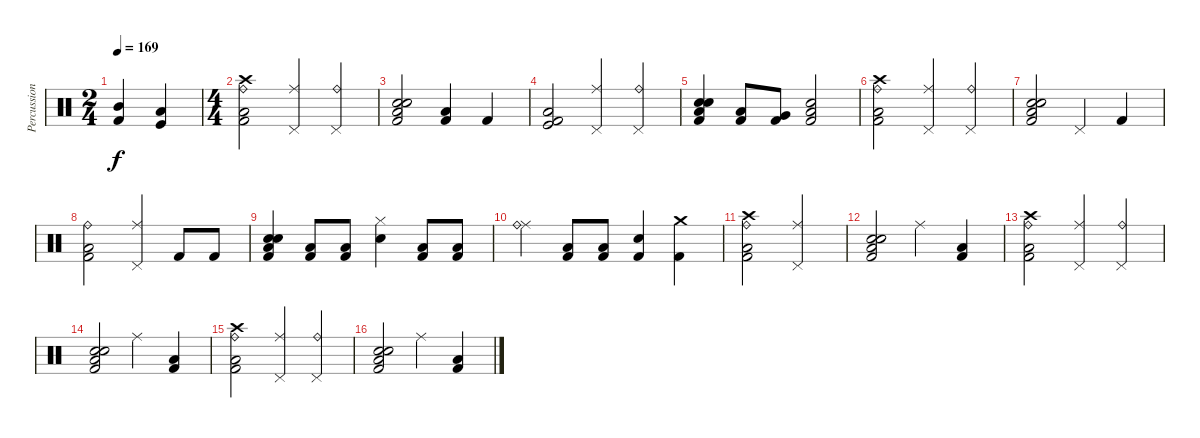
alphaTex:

\track ("Percussions" "Percussion") {instrument percussion}
\staff {score}
\articulation defaults
\ts (2 4)
\tempo 169
\clef neutral
\ks c
("Mid Tom (hit)" "Kick (hit) 2").4{dy f} ("Low Tom (hit)" "Kick (hit)").4 |
\ts (4 4)
("Ride (bell)" "Crash high (hit)" "Low Tom (hit)" "Kick (hit) 2").2 ("Ride (middle)" "Pedal Hi-Hat (hit)").4 ("Pedal Hi-Hat (hit)" "Ride (bell)").4 |
("Kick (hit) 2" "Low Tom (hit)" "Snare (hit) 2" "Electric Snare (hit)").2 ("Low Tom (hit)" "Kick (hit) 2").4 "Kick (hit) 2".4 |
("Kick (hit)" "Low Tom (hit)" "Kick (hit) 2").2 ("Ride (middle)" "Pedal Hi-Hat (hit)").4 ("Pedal Hi-Hat (hit)" "Ride (bell)").4 |
("Kick (hit) 2" "Low Tom (hit)" "Snare (hit) 2" "Electric Snare (hit)").4 ("Low Tom (hit)" "Kick (hit) 2").8 ("Very Low Tom (hit)" "Kick (hit) 2").8 ("Kick (hit) 2" "Low Tom (hit)" "Electric Snare (hit)").2 |
("Ride (bell)" "Crash high (hit)" "Low Tom (hit)" "Kick (hit) 2").2 ("Ride (middle)" "Pedal Hi-Hat (hit)").4 ("Pedal Hi-Hat (hit)" "Ride (bell)").4 |
("Kick (hit) 2" "Low Tom (hit)" "Snare (hit) 2" "Electric Snare (hit)").2 "Pedal Hi-Hat (hit)".4 "Kick (hit) 2".4 |
("Ride (bell)" "Low Tom (hit)" "Kick (hit) 2").2 ("Ride (middle)" "Pedal Hi-Hat (hit)").4 "Kick (hit) 2".8 "Kick (hit) 2".8 |
("Kick (hit) 2" "Low Tom (hit)" "Snare (hit) 2" "Electric Snare (hit)").4 ("Low Tom (hit)" "Kick (hit) 2").8 ("Kick (hit) 2" "Low Tom (hit)").8 ("Electric Snare (hit)" "Hi-Hat (closed)").4 ("Low Tom (hit)" "Kick (hit) 2").8 ("Low Tom (hit)" "Kick (hit) 2").8 |
("Ride (middle)" "Ride (bell)").4 ("Low Tom (hit)" "Kick (hit) 2").8 ("Low Tom (hit)" "Kick (hit) 2").8 ("Electric Snare (hit)" "Kick (hit) 2").4 ("Crash medium (hit)" "Kick (hit) 2").4 |
("Ride (bell)" "Crash high (hit)" "Low Tom (hit)" "Kick (hit) 2").2 ("Ride (middle)" "Pedal Hi-Hat (hit)").2 |
("Kick (hit) 2" "Low Tom (hit)" "Snare (hit) 2" "Electric Snare (hit)").2 "Ride (middle)".4 ("Low Tom (hit)" "Kick (hit) 2").4 |
("Ride (bell)" "Crash high (hit)" "Low Tom (hit)" "Kick (hit) 2").2 ("Ride (middle)" "Pedal Hi-Hat (hit)").4 ("Pedal Hi-Hat (hit)" "Ride (bell)").4 |
("Kick (hit) 2" "Low Tom (hit)" "Snare (hit) 2" "Electric Snare (hit)").2 "Ride (middle)".4 ("Low Tom (hit)" "Kick (hit) 2").4 |
("Ride (bell)" "Crash high (hit)" "Low Tom (hit)" "Kick (hit) 2").2 ("Ride (middle)" "Pedal Hi-Hat (hit)").4 ("Pedal Hi-Hat (hit)" "Ride (bell)").4 |
("Kick (hit) 2" "Low Tom (hit)" "Snare (hit) 2" "Electric Snare (hit)").2 "Ride (middle)".4 ("Low Tom (hit)" "Kick (hit) 2").4
